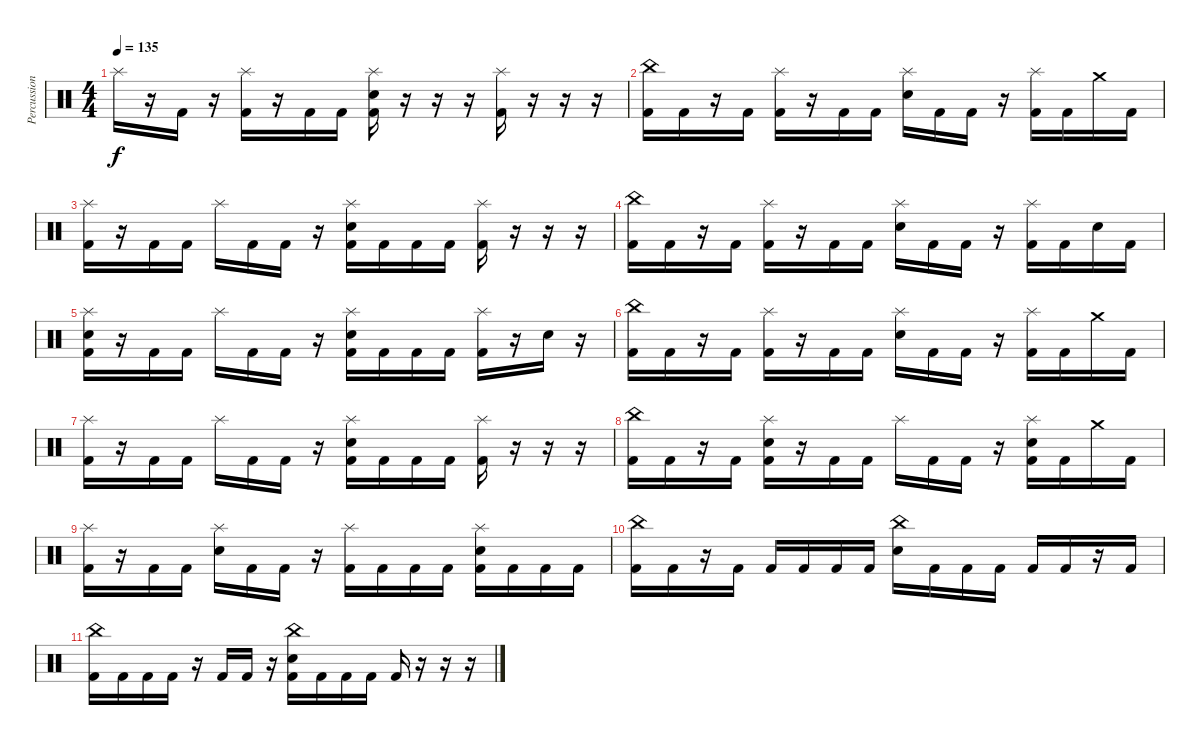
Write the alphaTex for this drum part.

\track ("Percussion" "Percussion") {instrument percussion}
\staff {score}
\articulation defaults
\ts (4 4)
\tempo 135
\clef neutral
\ks c "Splash (hit)".16{dy f}
r.16 "Kick (hit) 2".16 r.16 ("Splash (hit)" "Kick (hit) 2").16 r.16 "Kick (hit) 2".16 "Kick (hit) 2".16 ("Splash (hit)" "Electric Snare (hit)" "Kick (hit) 2").16 r.16 r.16 r.16 ("Splash (hit)" "Kick (hit) 2").16 r.16 r.16 r.16 |
("China (hit)" "Kick (hit) 2").16 "Kick (hit) 2".16 r.16 "Kick (hit) 2".16 ("Splash (hit)" "Kick (hit) 2").16 r.16 "Kick (hit) 2".16 "Kick (hit) 2".16 ("Splash (hit)" "Electric Snare (hit)").16 "Kick (hit) 2".16 "Kick (hit) 2".16 r.16 ("Splash (hit)" "Kick (hit) 2").16 "Kick (hit) 2".16 "Crash medium (hit)".16 "Kick (hit) 2".16 |
("Splash (hit)" "Kick (hit) 2").16 r.16 "Kick (hit) 2".16 "Kick (hit) 2".16 "Splash (hit)".16 "Kick (hit) 2".16 "Kick (hit) 2".16 r.16 ("Splash (hit)" "Electric Snare (hit)" "Kick (hit) 2").16 "Kick (hit) 2".16 "Kick (hit) 2".16 "Kick (hit) 2".16 ("Splash (hit)" "Kick (hit) 2").16 r.16 r.16 r.16 |
("China (hit)" "Kick (hit) 2").16 "Kick (hit) 2".16 r.16 "Kick (hit) 2".16 ("Splash (hit)" "Kick (hit) 2").16 r.16 "Kick (hit) 2".16 "Kick (hit) 2".16 ("Splash (hit)" "Electric Snare (hit)").16 "Kick (hit) 2".16 "Kick (hit) 2".16 r.16 ("Splash (hit)" "Kick (hit) 2").16 "Kick (hit) 2".16 "Electric Snare (hit)".16 "Kick (hit) 2".16 |
("Splash (hit)" "Electric Snare (hit)" "Kick (hit) 2").16 r.16 "Kick (hit) 2".16 "Kick (hit) 2".16 "Splash (hit)".16 "Kick (hit) 2".16 "Kick (hit) 2".16 r.16 ("Splash (hit)" "Electric Snare (hit)" "Kick (hit) 2").16 "Kick (hit) 2".16 "Kick (hit) 2".16 "Kick (hit) 2".16 ("Splash (hit)" "Kick (hit) 2").16 r.16 "Electric Snare (hit)".16 r.16 |
("China (hit)" "Kick (hit) 2").16 "Kick (hit) 2".16 r.16 "Kick (hit) 2".16 ("Splash (hit)" "Kick (hit) 2").16 r.16 "Kick (hit) 2".16 "Kick (hit) 2".16 ("Splash (hit)" "Electric Snare (hit)").16 "Kick (hit) 2".16 "Kick (hit) 2".16 r.16 ("Splash (hit)" "Kick (hit) 2").16 "Kick (hit) 2".16 "Crash medium (hit)".16 "Kick (hit) 2".16 |
("Splash (hit)" "Kick (hit) 2").16 r.16 "Kick (hit) 2".16 "Kick (hit) 2".16 "Splash (hit)".16 "Kick (hit) 2".16 "Kick (hit) 2".16 r.16 ("Splash (hit)" "Electric Snare (hit)" "Kick (hit) 2").16 "Kick (hit) 2".16 "Kick (hit) 2".16 "Kick (hit) 2".16 ("Splash (hit)" "Kick (hit) 2").16 r.16 r.16 r.16 |
("China (hit)" "Kick (hit) 2").16 "Kick (hit) 2".16 r.16 "Kick (hit) 2".16 ("Splash (hit)" "Electric Snare (hit)" "Kick (hit) 2").16 r.16 "Kick (hit) 2".16 "Kick (hit) 2".16 "Splash (hit)".16 "Kick (hit) 2".16 "Kick (hit) 2".16 r.16 ("Splash (hit)" "Electric Snare (hit)" "Kick (hit) 2").16 "Kick (hit) 2".16 "Crash medium (hit)".16 "Kick (hit) 2".16 |
("Splash (hit)" "Kick (hit) 2").16 r.16 "Kick (hit) 2".16 "Kick (hit) 2".16 ("Splash (hit)" "Electric Snare (hit)").16 "Kick (hit) 2".16 "Kick (hit) 2".16 r.16 ("Splash (hit)" "Kick (hit) 2").16 "Kick (hit) 2".16 "Kick (hit) 2".16 "Kick (hit) 2".16 ("Splash (hit)" "Electric Snare (hit)" "Kick (hit) 2").16 "Kick (hit) 2".16 "Kick (hit) 2".16 "Kick (hit) 2".16 |
("China (hit)" "Kick (hit) 2").16 "Kick (hit) 2".16 r.16 "Kick (hit) 2".16 "Kick (hit) 2".16 "Kick (hit) 2".16 "Kick (hit) 2".16 "Kick (hit) 2".16 ("China (hit)" "Electric Snare (hit)").16 "Kick (hit) 2".16 "Kick (hit) 2".16 "Kick (hit) 2".16 "Kick (hit) 2".16 "Kick (hit) 2".16 r.16 "Kick (hit) 2".16 |
("China (hit)" "Kick (hit) 2").16 "Kick (hit) 2".16 "Kick (hit) 2".16 "Kick (hit) 2".16 r.16 "Kick (hit) 2".16 "Kick (hit) 2".16 r.16 ("China (hit)" "Electric Snare (hit)" "Kick (hit) 2").16 "Kick (hit) 2".16 "Kick (hit) 2".16 "Kick (hit) 2".16 "Kick (hit) 2".16 r.16 r.16 r.16
